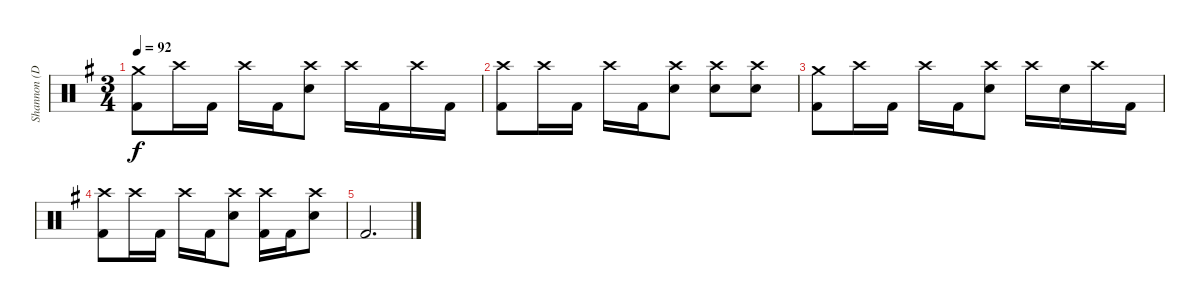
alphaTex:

\track ("Shannon (Drums)" "Shannon (D") {instrument percussion}
\staff {score}
\articulation defaults
\ts (3 4)
\tempo 92
\clef neutral
\ks g
("Crash medium (hit)" "Kick (hit) 2").8{dy f} "Crash high (hit)".16 "Kick (hit) 2".16 "Crash high (hit)".16 "Kick (hit) 2".16 ("Crash high (hit)" "Electric Snare (hit)").8 "Crash high (hit)".16 "Kick (hit) 2".16 "Crash high (hit)".16 "Kick (hit) 2".16 |
("Crash high (hit)" "Kick (hit) 2").8 "Crash high (hit)".16 "Kick (hit) 2".16 "Crash high (hit)".16 "Kick (hit) 2".16 ("Crash high (hit)" "Electric Snare (hit)").8 ("Crash high (hit)" "Electric Snare (hit)").8 ("Crash high (hit)" "Electric Snare (hit)").8 |
("Crash medium (hit)" "Kick (hit) 2").8 "Crash high (hit)".16 "Kick (hit) 2".16 "Crash high (hit)".16 "Kick (hit) 2".16 ("Crash high (hit)" "Electric Snare (hit)").8 "Crash high (hit)".16 "Electric Snare (hit)".16 "Crash high (hit)".16 "Kick (hit) 2".16 |
("Crash high (hit)" "Kick (hit) 2").8 "Crash high (hit)".16 "Kick (hit) 2".16 "Crash high (hit)".16 "Kick (hit) 2".16 ("Crash high (hit)" "Electric Snare (hit)").8 ("Crash high (hit)" "Kick (hit) 2").16 "Kick (hit) 2".16 ("Crash high (hit)" "Electric Snare (hit)").8 |
"Kick (hit) 2".2{d}
